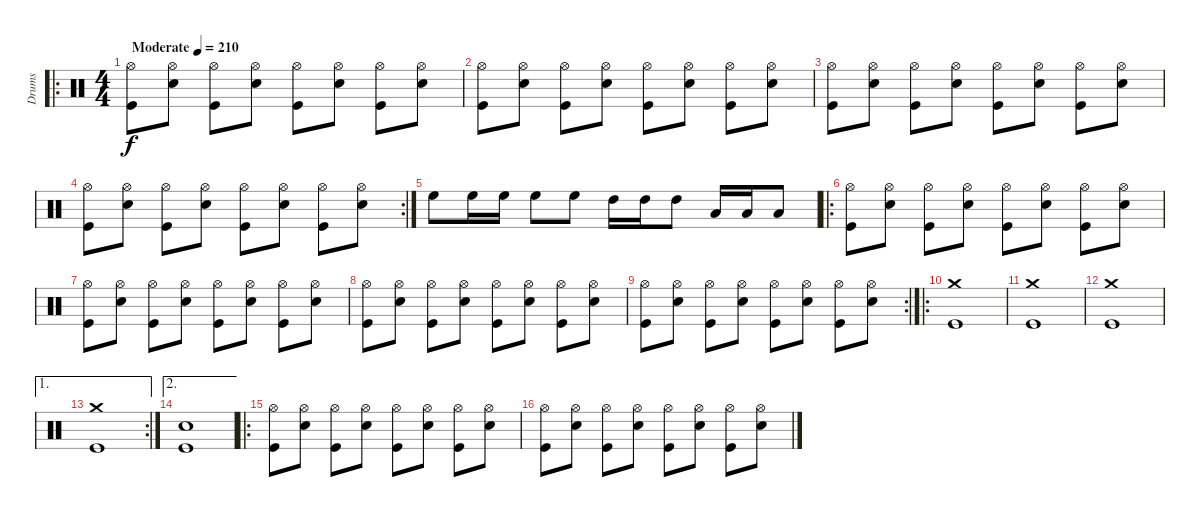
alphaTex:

\track ("Drums" "Drums") {instrument percussion}
\staff {score}
\articulation defaults
\ro
\ts (4 4)
\tempo (210 "Moderate")
\clef neutral
\ks c
("Hi-Hat (open)" "Kick (hit)").8{dy f} ("Hi-Hat (open)" "Snare (hit) 2").8 ("Hi-Hat (open)" "Kick (hit)").8 ("Hi-Hat (open)" "Snare (hit) 2").8 ("Hi-Hat (open)" "Kick (hit)").8 ("Hi-Hat (open)" "Snare (hit) 2").8 ("Hi-Hat (open)" "Kick (hit)").8 ("Hi-Hat (open)" "Snare (hit) 2").8 |
("Hi-Hat (open)" "Kick (hit)").8 ("Hi-Hat (open)" "Snare (hit) 2").8 ("Hi-Hat (open)" "Kick (hit)").8 ("Hi-Hat (open)" "Snare (hit) 2").8 ("Hi-Hat (open)" "Kick (hit)").8 ("Hi-Hat (open)" "Snare (hit) 2").8 ("Hi-Hat (open)" "Kick (hit)").8 ("Hi-Hat (open)" "Snare (hit) 2").8 |
("Hi-Hat (open)" "Kick (hit)").8 ("Hi-Hat (open)" "Snare (hit) 2").8 ("Hi-Hat (open)" "Kick (hit)").8 ("Hi-Hat (open)" "Snare (hit) 2").8 ("Hi-Hat (open)" "Kick (hit)").8 ("Hi-Hat (open)" "Snare (hit) 2").8 ("Hi-Hat (open)" "Kick (hit)").8 ("Hi-Hat (open)" "Snare (hit) 2").8 |
\rc 2
("Hi-Hat (open)" "Kick (hit)").8 ("Hi-Hat (open)" "Snare (hit) 2").8 ("Hi-Hat (open)" "Kick (hit)").8 ("Hi-Hat (open)" "Snare (hit) 2").8 ("Hi-Hat (open)" "Kick (hit)").8 ("Hi-Hat (open)" "Snare (hit) 2").8 ("Hi-Hat (open)" "Kick (hit)").8 ("Hi-Hat (open)" "Snare (hit) 2").8 |
"High Floor Tom (hit)".8 "High Floor Tom (hit)".16 "High Floor Tom (hit)".16 "High Floor Tom (hit)".8 "High Floor Tom (hit)".8 "High Tom (hit)".16 "High Tom (hit)".16 "High Tom (hit)".8 "Low Tom (hit)".16 "Low Tom (hit)".16 "Low Tom (hit)".8 |
\ro
("Hi-Hat (open)" "Kick (hit)").8 ("Hi-Hat (open)" "Snare (hit) 2").8 ("Hi-Hat (open)" "Kick (hit)").8 ("Hi-Hat (open)" "Snare (hit) 2").8 ("Hi-Hat (open)" "Kick (hit)").8 ("Hi-Hat (open)" "Snare (hit) 2").8 ("Hi-Hat (open)" "Kick (hit)").8 ("Hi-Hat (open)" "Snare (hit) 2").8 |
("Hi-Hat (open)" "Kick (hit)").8 ("Hi-Hat (open)" "Snare (hit) 2").8 ("Hi-Hat (open)" "Kick (hit)").8 ("Hi-Hat (open)" "Snare (hit) 2").8 ("Hi-Hat (open)" "Kick (hit)").8 ("Hi-Hat (open)" "Snare (hit) 2").8 ("Hi-Hat (open)" "Kick (hit)").8 ("Hi-Hat (open)" "Snare (hit) 2").8 |
("Hi-Hat (open)" "Kick (hit)").8 ("Hi-Hat (open)" "Snare (hit) 2").8 ("Hi-Hat (open)" "Kick (hit)").8 ("Hi-Hat (open)" "Snare (hit) 2").8 ("Hi-Hat (open)" "Kick (hit)").8 ("Hi-Hat (open)" "Snare (hit) 2").8 ("Hi-Hat (open)" "Kick (hit)").8 ("Hi-Hat (open)" "Snare (hit) 2").8 |
\rc 2
("Hi-Hat (open)" "Kick (hit)").8 ("Hi-Hat (open)" "Snare (hit) 2").8 ("Hi-Hat (open)" "Kick (hit)").8 ("Hi-Hat (open)" "Snare (hit) 2").8 ("Hi-Hat (open)" "Kick (hit)").8 ("Hi-Hat (open)" "Snare (hit) 2").8 ("Hi-Hat (open)" "Kick (hit)").8 ("Hi-Hat (open)" "Snare (hit) 2").8 |
\ro
("Crash medium (hit)" "Kick (hit)").1 |
("Crash medium (hit)" "Kick (hit)").1 |
("Crash medium (hit)" "Kick (hit)").1 |
\ae 1
\rc 2
("Crash medium (hit)" "Kick (hit)").1 |
\ae 2
("Snare (hit) 2" "Kick (hit)").1 |
\ro
("Hi-Hat (open)" "Kick (hit)").8 ("Hi-Hat (open)" "Snare (hit) 2").8 ("Hi-Hat (open)" "Kick (hit)").8 ("Hi-Hat (open)" "Snare (hit) 2").8 ("Hi-Hat (open)" "Kick (hit)").8 ("Hi-Hat (open)" "Snare (hit) 2").8 ("Hi-Hat (open)" "Kick (hit)").8 ("Hi-Hat (open)" "Snare (hit) 2").8 |
("Hi-Hat (open)" "Kick (hit)").8 ("Hi-Hat (open)" "Snare (hit) 2").8 ("Hi-Hat (open)" "Kick (hit)").8 ("Hi-Hat (open)" "Snare (hit) 2").8 ("Hi-Hat (open)" "Kick (hit)").8 ("Hi-Hat (open)" "Snare (hit) 2").8 ("Hi-Hat (open)" "Kick (hit)").8 ("Hi-Hat (open)" "Snare (hit) 2").8
